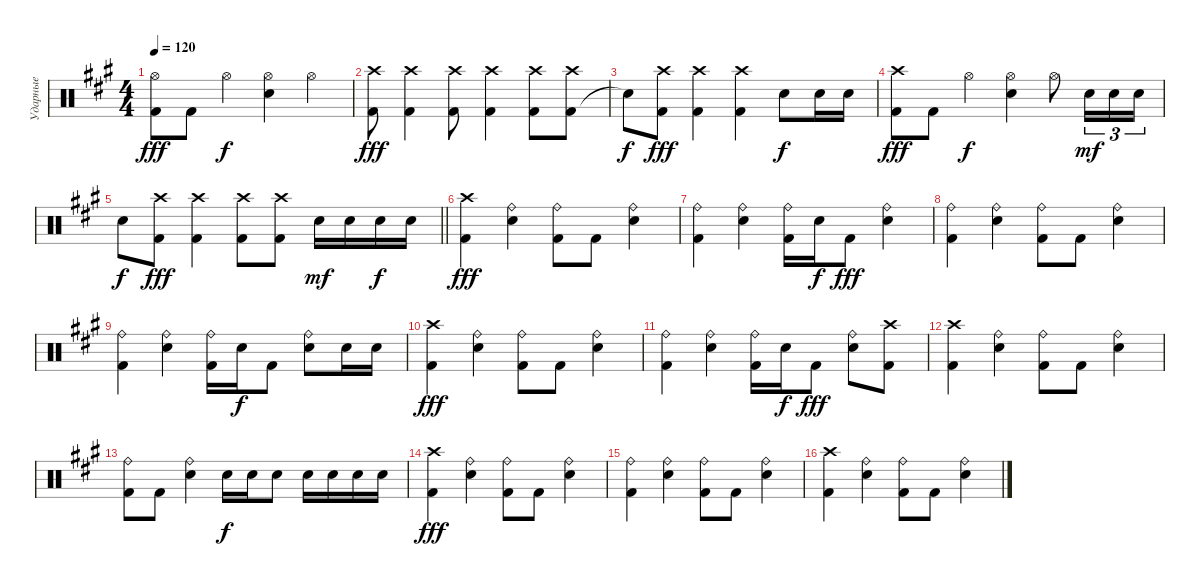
\track ("Ударные" "Ударные") {instrument percussion}
\staff {score}
\articulation defaults
\ts (4 4)
\tempo 120
\clef neutral
\ks a
("Kick (hit) 2" "Hi-Hat (open)").8{dy fff} "Kick (hit) 2".8 "Hi-Hat (open)".4{dy f} ("Snare (hit) 2" "Hi-Hat (open)").4 "Hi-Hat (open)".4 |
("Kick (hit) 2" "Crash high (hit)").8{dy fff} ("Kick (hit) 2" "Crash high (hit)").4 ("Kick (hit) 2" "Crash high (hit)").8 ("Kick (hit) 2" "Crash high (hit)").4 ("Kick (hit) 2" "Crash high (hit)").8 ("Kick (hit) 2" "Crash high (hit)").8 |
"Snare (hit)"{t}.8{dy f} ("Kick (hit) 2" "Crash high (hit)").8{dy fff} ("Kick (hit) 2" "Crash high (hit)").4 ("Kick (hit) 2" "Crash high (hit)").4 "Snare (hit) 2".8{dy f} "Snare (hit) 2".16 "Snare (hit) 2".16 |
("Kick (hit) 2" "Crash high (hit)").8{dy fff} "Kick (hit) 2".8 "Hi-Hat (open)".4{dy f} ("Snare (hit) 2" "Hi-Hat (open)").4 "Hi-Hat (open)".8 "Snare (hit) 2".16{tu (3 2) dy mf} "Snare (hit) 2".16{tu (3 2)} "Snare (hit) 2".16{tu (3 2)} |
\barLineRight lightlight "Snare (hit) 2".8{dy f}
("Kick (hit) 2" "Crash high (hit)").8{dy fff} ("Kick (hit) 2" "Crash high (hit)").4 ("Kick (hit) 2" "Crash high (hit)").8 ("Kick (hit) 2" "Crash high (hit)").8 "Snare (hit) 2".16{dy mf} "Snare (hit) 2".16 "Snare (hit) 2".16{dy f} "Snare (hit) 2".16 |
("Kick (hit) 2" "Crash high (hit)").4{dy fff} ("Snare (hit) 2" "Ride (bell)").4 ("Kick (hit) 2" "Ride (bell)").8 "Kick (hit) 2".8 ("Snare (hit) 2" "Ride (bell)").4 |
("Kick (hit) 2" "Ride (bell)").4 ("Snare (hit) 2" "Ride (bell)").4 ("Kick (hit) 2" "Ride (bell)").16 "Snare (hit) 2".16{dy f} "Kick (hit) 2".8{dy fff} ("Snare (hit) 2" "Ride (bell)").4 |
("Kick (hit) 2" "Ride (bell)").4 ("Snare (hit) 2" "Ride (bell)").4 ("Kick (hit) 2" "Ride (bell)").8 "Kick (hit) 2".8 ("Snare (hit) 2" "Ride (bell)").4 |
("Kick (hit) 2" "Ride (bell)").4 ("Snare (hit) 2" "Ride (bell)").4 ("Kick (hit) 2" "Ride (bell)").16 "Snare (hit) 2".16{dy f} "Kick (hit) 2".8 ("Snare (hit) 2" "Ride (bell)").8 "Snare (hit) 2".16 "Snare (hit) 2".16 |
("Kick (hit) 2" "Crash high (hit)").4{dy fff} ("Snare (hit) 2" "Ride (bell)").4 ("Kick (hit) 2" "Ride (bell)").8 "Kick (hit) 2".8 ("Snare (hit) 2" "Ride (bell)").4 |
("Kick (hit) 2" "Ride (bell)").4 ("Snare (hit) 2" "Ride (bell)").4 ("Kick (hit) 2" "Ride (bell)").16 "Snare (hit) 2".16{dy f} "Kick (hit) 2".8{dy fff} ("Snare (hit) 2" "Ride (bell)").8 ("Kick (hit) 2" "Crash high (hit)").8 |
("Kick (hit) 2" "Crash high (hit)").4 ("Snare (hit) 2" "Ride (bell)").4 ("Kick (hit) 2" "Ride (bell)").8 "Kick (hit) 2".8 ("Snare (hit) 2" "Ride (bell)").4 |
("Kick (hit) 2" "Ride (bell)").8 "Kick (hit) 2".8 ("Snare (hit) 2" "Ride (bell)").4 "Snare (hit) 2".16{dy f} "Snare (hit) 2".16 "Snare (hit) 2".8 "Snare (hit) 2".16 "Snare (hit) 2".16 "Snare (hit) 2".16 "Snare (hit) 2".16 |
("Kick (hit) 2" "Crash high (hit)").4{dy fff} ("Snare (hit) 2" "Ride (bell)").4 ("Kick (hit) 2" "Ride (bell)").8 "Kick (hit) 2".8 ("Snare (hit) 2" "Ride (bell)").4 |
("Kick (hit) 2" "Ride (bell)").4 ("Snare (hit) 2" "Ride (bell)").4 ("Kick (hit) 2" "Ride (bell)").8 "Kick (hit) 2".8 ("Snare (hit) 2" "Ride (bell)").4 |
("Kick (hit) 2" "Crash high (hit)").4 ("Snare (hit) 2" "Ride (bell)").4 ("Kick (hit) 2" "Ride (bell)").8 "Kick (hit) 2".8 ("Snare (hit) 2" "Ride (bell)").4
